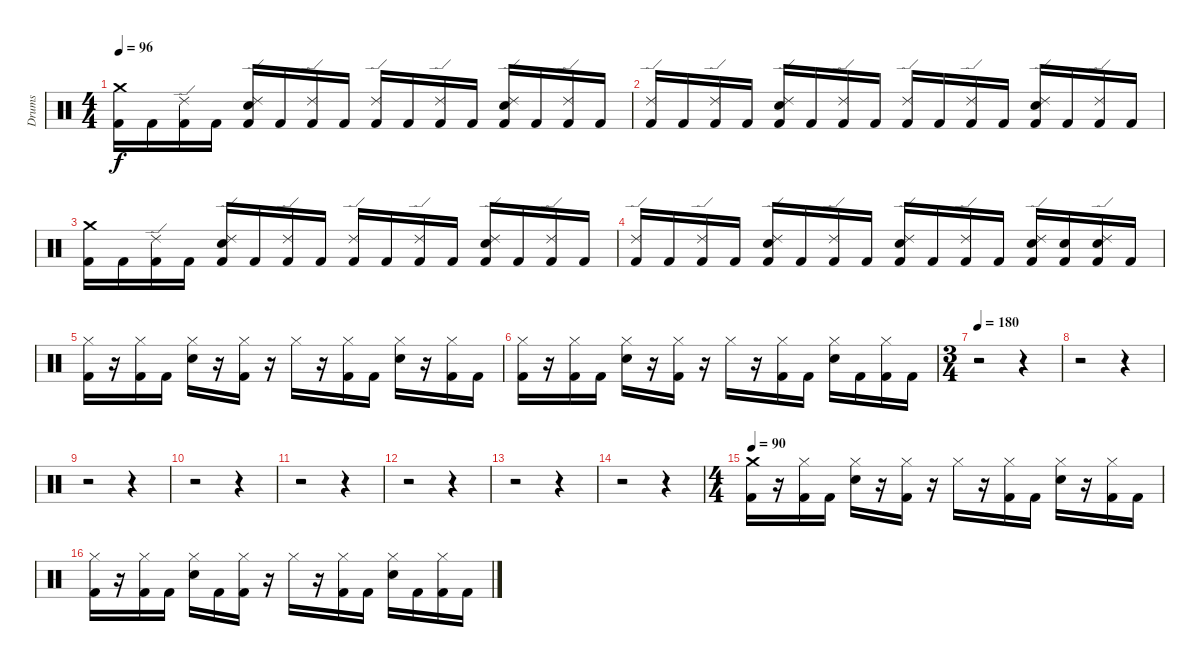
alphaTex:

\track ("Drums" "Drums") {instrument percussion}
\staff {score}
\articulation defaults
\ts (4 4)
\tempo 96
\clef neutral
\ks c
("Crash medium (hit)" "Kick (hit) 2").16{dy f} "Kick (hit) 2".16 ("Ride (edge) 2" "Kick (hit) 2").16 "Kick (hit) 2".16 ("Ride (edge) 2" "Electric Snare (hit)" "Kick (hit) 2").16 "Kick (hit) 2".16 ("Ride (edge) 2" "Kick (hit) 2").16 "Kick (hit) 2".16 ("Ride (edge) 2" "Kick (hit) 2").16 "Kick (hit) 2".16 ("Ride (edge) 2" "Kick (hit) 2").16 "Kick (hit) 2".16 ("Ride (edge) 2" "Electric Snare (hit)" "Kick (hit) 2").16 "Kick (hit) 2".16 ("Ride (edge) 2" "Kick (hit) 2").16 "Kick (hit) 2".16 |
("Ride (edge) 2" "Kick (hit) 2").16 "Kick (hit) 2".16 ("Ride (edge) 2" "Kick (hit) 2").16 "Kick (hit) 2".16 ("Ride (edge) 2" "Electric Snare (hit)" "Kick (hit) 2").16 "Kick (hit) 2".16 ("Ride (edge) 2" "Kick (hit) 2").16 "Kick (hit) 2".16 ("Ride (edge) 2" "Kick (hit) 2").16 "Kick (hit) 2".16 ("Ride (edge) 2" "Kick (hit) 2").16 "Kick (hit) 2".16 ("Ride (edge) 2" "Electric Snare (hit)" "Kick (hit) 2").16 "Kick (hit) 2".16 ("Ride (edge) 2" "Kick (hit) 2").16 "Kick (hit) 2".16 |
("Crash medium (hit)" "Kick (hit) 2").16 "Kick (hit) 2".16 ("Ride (edge) 2" "Kick (hit) 2").16 "Kick (hit) 2".16 ("Ride (edge) 2" "Electric Snare (hit)" "Kick (hit) 2").16 "Kick (hit) 2".16 ("Ride (edge) 2" "Kick (hit) 2").16 "Kick (hit) 2".16 ("Ride (edge) 2" "Kick (hit) 2").16 "Kick (hit) 2".16 ("Ride (edge) 2" "Kick (hit) 2").16 "Kick (hit) 2".16 ("Ride (edge) 2" "Electric Snare (hit)" "Kick (hit) 2").16 "Kick (hit) 2".16 ("Ride (edge) 2" "Kick (hit) 2").16 "Kick (hit) 2".16 |
("Ride (edge) 2" "Kick (hit) 2").16 "Kick (hit) 2".16 ("Ride (edge) 2" "Kick (hit) 2").16 "Kick (hit) 2".16 ("Ride (edge) 2" "Electric Snare (hit)" "Kick (hit) 2").16 "Kick (hit) 2".16 ("Ride (edge) 2" "Kick (hit) 2").16 "Kick (hit) 2".16 ("Ride (edge) 2" "Kick (hit) 2" "Electric Snare (hit)").16 "Kick (hit) 2".16 ("Ride (edge) 2" "Kick (hit) 2").16 "Kick (hit) 2".16 ("Ride (edge) 2" "Electric Snare (hit)" "Kick (hit) 2").16 ("Kick (hit) 2" "Electric Snare (hit)").16 ("Ride (edge) 2" "Kick (hit) 2" "Electric Snare (hit)").16 "Kick (hit) 2".16 |
("Hi-Hat (closed)" "Kick (hit) 2").16 r.16 ("Hi-Hat (closed)" "Kick (hit) 2").16 "Kick (hit) 2".16 ("Hi-Hat (closed)" "Electric Snare (hit)").16 r.16 ("Hi-Hat (closed)" "Kick (hit) 2").16 r.16 "Hi-Hat (closed)".16 r.16 ("Hi-Hat (closed)" "Kick (hit) 2").16 "Kick (hit) 2".16 ("Hi-Hat (closed)" "Electric Snare (hit)").16 r.16 ("Kick (hit) 2" "Hi-Hat (closed)").16 "Kick (hit) 2".16 |
("Hi-Hat (closed)" "Kick (hit) 2").16 r.16 ("Hi-Hat (closed)" "Kick (hit) 2").16 "Kick (hit) 2".16 ("Hi-Hat (closed)" "Electric Snare (hit)").16 r.16 ("Hi-Hat (closed)" "Kick (hit) 2").16 r.16 "Hi-Hat (closed)".16 r.16 ("Hi-Hat (closed)" "Kick (hit) 2").16 "Kick (hit) 2".16 ("Hi-Hat (closed)" "Electric Snare (hit)").16 "Kick (hit) 2".16 ("Kick (hit) 2" "Hi-Hat (closed)").16 "Kick (hit) 2".16 |
\ts (3 4)
\tempo 180
r.2 r.4 |
r.2 r.4 |
r.2 r.4 |
r.2 r.4 |
r.2 r.4 |
r.2 r.4 |
r.2 r.4 |
r.2 r.4 |
\ts (4 4)
\tempo 90
("Crash medium (hit)" "Kick (hit) 2").16 r.16 ("Hi-Hat (closed)" "Kick (hit) 2").16 "Kick (hit) 2".16 ("Hi-Hat (closed)" "Electric Snare (hit)").16 r.16 ("Hi-Hat (closed)" "Kick (hit) 2").16 r.16 "Hi-Hat (closed)".16 r.16 ("Hi-Hat (closed)" "Kick (hit) 2").16 "Kick (hit) 2".16 ("Hi-Hat (closed)" "Electric Snare (hit)").16 r.16 ("Kick (hit) 2" "Hi-Hat (closed)").16 "Kick (hit) 2".16 |
("Hi-Hat (closed)" "Kick (hit) 2").16 r.16 ("Hi-Hat (closed)" "Kick (hit) 2").16 "Kick (hit) 2".16 ("Hi-Hat (closed)" "Electric Snare (hit)").16 "Kick (hit) 2".16 ("Hi-Hat (closed)" "Kick (hit) 2").16 r.16 "Hi-Hat (closed)".16 r.16 ("Hi-Hat (closed)" "Kick (hit) 2").16 "Kick (hit) 2".16 ("Hi-Hat (closed)" "Electric Snare (hit)").16 "Kick (hit) 2".16 ("Kick (hit) 2" "Hi-Hat (closed)").16 "Kick (hit) 2".16
